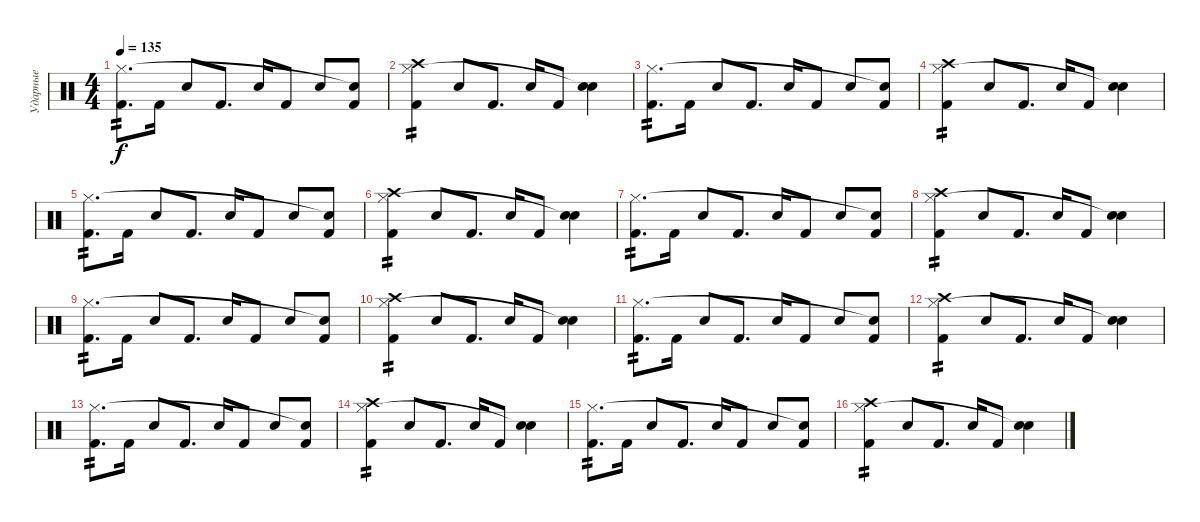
\track ("Ударные" "Ударные") {instrument percussion}
\staff {score}
\articulation defaults
\ts (4 4)
\tempo 135
\clef neutral
\ks c
("Kick (hit) 2" "Hi-Hat (closed)").8{d tp 2 dy f} "Kick (hit) 2".16 "Electric Snare (hit)".8 "Kick (hit) 2".8{d} "Electric Snare (hit)".16 "Kick (hit) 2".8 "Electric Snare (hit)".8 ("Kick (hit) 2" "Snare (hit)"{t}).8 |
("Kick (hit) 2" "Hi-Hat (closed)" "Crash high (hit)").4{tp 2} "Electric Snare (hit)".8 "Kick (hit) 2".8{d} "Electric Snare (hit)".16 "Kick (hit) 2".8 ("Electric Snare (hit)" "Snare (hit)"{t}).4 |
("Kick (hit) 2" "Hi-Hat (closed)").8{d tp 2} "Kick (hit) 2".16 "Electric Snare (hit)".8 "Kick (hit) 2".8{d} "Electric Snare (hit)".16 "Kick (hit) 2".8 "Electric Snare (hit)".8 ("Kick (hit) 2" "Snare (hit)"{t}).8 |
("Kick (hit) 2" "Hi-Hat (closed)" "Crash high (hit)").4{tp 2} "Electric Snare (hit)".8 "Kick (hit) 2".8{d} "Electric Snare (hit)".16 "Kick (hit) 2".8 ("Electric Snare (hit)" "Snare (hit)"{t}).4 |
("Kick (hit) 2" "Hi-Hat (closed)").8{d tp 2} "Kick (hit) 2".16 "Electric Snare (hit)".8 "Kick (hit) 2".8{d} "Electric Snare (hit)".16 "Kick (hit) 2".8 "Electric Snare (hit)".8 ("Kick (hit) 2" "Snare (hit)"{t}).8 |
("Kick (hit) 2" "Hi-Hat (closed)" "Crash high (hit)").4{tp 2} "Electric Snare (hit)".8 "Kick (hit) 2".8{d} "Electric Snare (hit)".16 "Kick (hit) 2".8 ("Electric Snare (hit)" "Snare (hit)"{t}).4 |
("Kick (hit) 2" "Hi-Hat (closed)").8{d tp 2} "Kick (hit) 2".16 "Electric Snare (hit)".8 "Kick (hit) 2".8{d} "Electric Snare (hit)".16 "Kick (hit) 2".8 "Electric Snare (hit)".8 ("Kick (hit) 2" "Snare (hit)"{t}).8 |
("Kick (hit) 2" "Hi-Hat (closed)" "Crash high (hit)").4{tp 2} "Electric Snare (hit)".8 "Kick (hit) 2".8{d} "Electric Snare (hit)".16 "Kick (hit) 2".8 ("Electric Snare (hit)" "Snare (hit)"{t}).4 |
("Kick (hit) 2" "Hi-Hat (closed)").8{d tp 2} "Kick (hit) 2".16 "Electric Snare (hit)".8 "Kick (hit) 2".8{d} "Electric Snare (hit)".16 "Kick (hit) 2".8 "Electric Snare (hit)".8 ("Kick (hit) 2" "Snare (hit)"{t}).8 |
("Kick (hit) 2" "Hi-Hat (closed)" "Crash high (hit)").4{tp 2} "Electric Snare (hit)".8 "Kick (hit) 2".8{d} "Electric Snare (hit)".16 "Kick (hit) 2".8 ("Electric Snare (hit)" "Snare (hit)"{t}).4 |
("Kick (hit) 2" "Hi-Hat (closed)").8{d tp 2} "Kick (hit) 2".16 "Electric Snare (hit)".8 "Kick (hit) 2".8{d} "Electric Snare (hit)".16 "Kick (hit) 2".8 "Electric Snare (hit)".8 ("Kick (hit) 2" "Snare (hit)"{t}).8 |
("Kick (hit) 2" "Hi-Hat (closed)" "Crash high (hit)").4{tp 2} "Electric Snare (hit)".8 "Kick (hit) 2".8{d} "Electric Snare (hit)".16 "Kick (hit) 2".8 ("Electric Snare (hit)" "Snare (hit)"{t}).4 |
("Kick (hit) 2" "Hi-Hat (closed)").8{d tp 2} "Kick (hit) 2".16 "Electric Snare (hit)".8 "Kick (hit) 2".8{d} "Electric Snare (hit)".16 "Kick (hit) 2".8 "Electric Snare (hit)".8 ("Kick (hit) 2" "Snare (hit)"{t}).8 |
("Kick (hit) 2" "Hi-Hat (closed)" "Crash high (hit)").4{tp 2} "Electric Snare (hit)".8 "Kick (hit) 2".8{d} "Electric Snare (hit)".16 "Kick (hit) 2".8 ("Electric Snare (hit)" "Snare (hit)"{t}).4 |
("Kick (hit) 2" "Hi-Hat (closed)").8{d tp 2} "Kick (hit) 2".16 "Electric Snare (hit)".8 "Kick (hit) 2".8{d} "Electric Snare (hit)".16 "Kick (hit) 2".8 "Electric Snare (hit)".8 ("Kick (hit) 2" "Snare (hit)"{t}).8 |
("Kick (hit) 2" "Hi-Hat (closed)" "Crash high (hit)").4{tp 2} "Electric Snare (hit)".8 "Kick (hit) 2".8{d} "Electric Snare (hit)".16 "Kick (hit) 2".8 ("Electric Snare (hit)" "Snare (hit)"{t}).4
